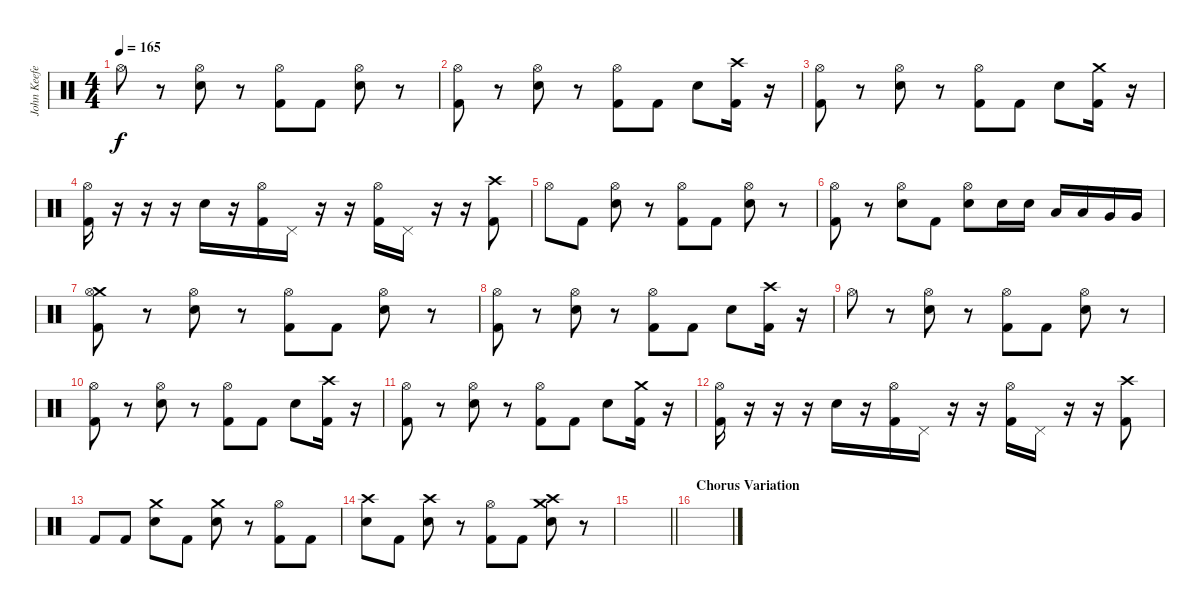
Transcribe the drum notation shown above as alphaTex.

\track ("John Keefe (Percussion)" "John Keefe") {instrument percussion}
\staff {score}
\articulation defaults
\ts (4 4)
\tempo 165
\clef neutral
\ks c "Hi-Hat (open)".8{dy f}
r.8 ("Hi-Hat (open)" "Electric Snare (hit)").8 r.8 ("Hi-Hat (open)" "Kick (hit) 2").8 "Kick (hit) 2".8 ("Hi-Hat (open)" "Electric Snare (hit)").8 r.8 |
("Hi-Hat (open)" "Kick (hit) 2").8 r.8 ("Hi-Hat (open)" "Electric Snare (hit)").8 r.8 ("Hi-Hat (open)" "Kick (hit) 2").8 "Kick (hit) 2".8 "Electric Snare (hit)".8 ("Crash high (hit)" "Kick (hit) 2").16 r.16 |
("Hi-Hat (open)" "Kick (hit) 2").8 r.8 ("Hi-Hat (open)" "Electric Snare (hit)").8 r.8 ("Hi-Hat (open)" "Kick (hit) 2").8 "Kick (hit) 2".8 "Electric Snare (hit)".8 ("Crash medium (hit)" "Kick (hit) 2").16 r.16 |
("Hi-Hat (open)" "Kick (hit) 2").16 r.16 r.16 r.16 "Electric Snare (hit)".16 r.16 ("Hi-Hat (open)" "Kick (hit) 2").16 "Pedal Hi-Hat (hit)".16 r.16 r.16 ("Hi-Hat (open)" "Kick (hit) 2").16 "Pedal Hi-Hat (hit)".16 r.16 r.16 ("Crash high (hit)" "Kick (hit) 2").8 |
"Hi-Hat (open)".8 "Kick (hit) 2".8 ("Hi-Hat (open)" "Electric Snare (hit)").8 r.8 ("Hi-Hat (open)" "Kick (hit) 2").8 "Kick (hit) 2".8 ("Hi-Hat (open)" "Electric Snare (hit)").8 r.8 |
("Hi-Hat (open)" "Kick (hit) 2").8 r.8 ("Hi-Hat (open)" "Electric Snare (hit)").8 "Kick (hit) 2".8 ("Hi-Hat (open)" "Electric Snare (hit)").8 "Electric Snare (hit)".16 "Electric Snare (hit)".16 "Low Tom (hit)".16 "Low Tom (hit)".16 "Very Low Tom (hit)".16 "Very Low Tom (hit)".16 |
("Crash medium (hit)" "Hi-Hat (open)" "Kick (hit) 2").8 r.8 ("Hi-Hat (open)" "Electric Snare (hit)").8 r.8 ("Hi-Hat (open)" "Kick (hit) 2").8 "Kick (hit) 2".8 ("Hi-Hat (open)" "Electric Snare (hit)").8 r.8 |
("Hi-Hat (open)" "Kick (hit) 2").8 r.8 ("Hi-Hat (open)" "Electric Snare (hit)").8 r.8 ("Hi-Hat (open)" "Kick (hit) 2").8 "Kick (hit) 2".8 "Electric Snare (hit)".8 ("Crash high (hit)" "Kick (hit) 2").16 r.16 |
"Hi-Hat (open)".8 r.8 ("Hi-Hat (open)" "Electric Snare (hit)").8 r.8 ("Hi-Hat (open)" "Kick (hit) 2").8 "Kick (hit) 2".8 ("Hi-Hat (open)" "Electric Snare (hit)").8 r.8 |
("Hi-Hat (open)" "Kick (hit) 2").8 r.8 ("Hi-Hat (open)" "Electric Snare (hit)").8 r.8 ("Hi-Hat (open)" "Kick (hit) 2").8 "Kick (hit) 2".8 "Electric Snare (hit)".8 ("Crash high (hit)" "Kick (hit) 2").16 r.16 |
("Hi-Hat (open)" "Kick (hit) 2").8 r.8 ("Hi-Hat (open)" "Electric Snare (hit)").8 r.8 ("Hi-Hat (open)" "Kick (hit) 2").8 "Kick (hit) 2".8 "Electric Snare (hit)".8 ("Crash medium (hit)" "Kick (hit) 2").16 r.16 |
("Hi-Hat (open)" "Kick (hit) 2").16 r.16 r.16 r.16 "Electric Snare (hit)".16 r.16 ("Hi-Hat (open)" "Kick (hit) 2").16 "Pedal Hi-Hat (hit)".16 r.16 r.16 ("Hi-Hat (open)" "Kick (hit) 2").16 "Pedal Hi-Hat (hit)".16 r.16 r.16 ("Crash high (hit)" "Kick (hit) 2").8 |
"Kick (hit) 2".8 "Kick (hit) 2".8 ("Crash medium (hit)" "Electric Snare (hit)").8 "Kick (hit) 2".8 ("Crash medium (hit)" "Electric Snare (hit)").8 r.8 ("Hi-Hat (open)" "Kick (hit) 2").8 "Kick (hit) 2".8 |
("Crash high (hit)" "Electric Snare (hit)").8 "Kick (hit) 2".8 ("Crash high (hit)" "Electric Snare (hit)").8 r.8 ("Hi-Hat (open)" "Kick (hit) 2").8 "Kick (hit) 2".8 ("Crash high (hit)" "Crash medium (hit)" "Electric Snare (hit)").8 r.8 |
\barLineRight lightlight
|
\section ("" "Chorus Variation")
